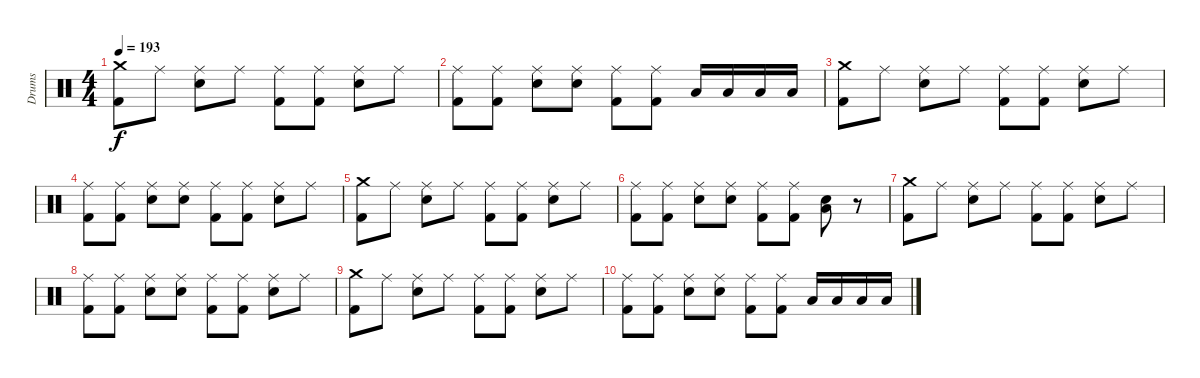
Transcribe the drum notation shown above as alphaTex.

\track ("Drums" "Drums") {instrument percussion}
\staff {score}
\articulation defaults
\ts (4 4)
\tempo 193
\clef neutral
\ks c
("Crash medium (hit)" "Kick (hit) 2").8{dy f} "Ride (middle)".8 ("Ride (middle)" "Snare (hit) 2").8 "Ride (middle)".8 ("Ride (middle)" "Kick (hit) 2").8 ("Ride (middle)" "Kick (hit) 2").8 ("Ride (middle)" "Snare (hit) 2").8 "Ride (middle)".8 |
("Ride (middle)" "Kick (hit) 2").8 ("Ride (middle)" "Kick (hit) 2").8 ("Ride (middle)" "Snare (hit) 2").8 ("Ride (middle)" "Snare (hit) 2").8 ("Ride (middle)" "Kick (hit) 2").8 ("Ride (middle)" "Kick (hit) 2").8 "Low Floor Tom (hit)".16 "Low Floor Tom (hit)".16 "Low Floor Tom (hit)".16 "Low Floor Tom (hit)".16 |
("Crash medium (hit)" "Kick (hit) 2").8 "Ride (middle)".8 ("Ride (middle)" "Snare (hit) 2").8 "Ride (middle)".8 ("Ride (middle)" "Kick (hit) 2").8 ("Ride (middle)" "Kick (hit) 2").8 ("Ride (middle)" "Snare (hit) 2").8 "Ride (middle)".8 |
("Ride (middle)" "Kick (hit) 2").8 ("Ride (middle)" "Kick (hit) 2").8 ("Ride (middle)" "Snare (hit) 2").8 ("Ride (middle)" "Snare (hit) 2").8 ("Ride (middle)" "Kick (hit) 2").8 ("Ride (middle)" "Kick (hit) 2").8 ("Ride (middle)" "Snare (hit) 2").8 "Ride (middle)".8 |
("Crash medium (hit)" "Kick (hit) 2").8 "Ride (middle)".8 ("Ride (middle)" "Snare (hit) 2").8 "Ride (middle)".8 ("Ride (middle)" "Kick (hit) 2").8 ("Ride (middle)" "Kick (hit) 2").8 ("Ride (middle)" "Snare (hit) 2").8 "Ride (middle)".8 |
("Ride (middle)" "Kick (hit) 2").8 ("Ride (middle)" "Kick (hit) 2").8 ("Ride (middle)" "Snare (hit) 2").8 ("Ride (middle)" "Snare (hit) 2").8 ("Ride (middle)" "Kick (hit) 2").8 ("Ride (middle)" "Kick (hit) 2").8 ("Snare (hit) 2" "Low Tom (hit)").8 r.8 |
("Crash medium (hit)" "Kick (hit) 2").8{volume 8} "Ride (middle)".8 ("Ride (middle)" "Snare (hit) 2").8 "Ride (middle)".8 ("Ride (middle)" "Kick (hit) 2").8 ("Ride (middle)" "Kick (hit) 2").8 ("Ride (middle)" "Snare (hit) 2").8 "Ride (middle)".8 |
("Ride (middle)" "Kick (hit) 2").8 ("Ride (middle)" "Kick (hit) 2").8 ("Ride (middle)" "Snare (hit) 2").8 ("Ride (middle)" "Snare (hit) 2").8 ("Ride (middle)" "Kick (hit) 2").8 ("Ride (middle)" "Kick (hit) 2").8 ("Ride (middle)" "Snare (hit) 2").8 "Ride (middle)".8 |
("Crash medium (hit)" "Kick (hit) 2").8{volume 0} "Ride (middle)".8 ("Ride (middle)" "Snare (hit) 2").8 "Ride (middle)".8 ("Ride (middle)" "Kick (hit) 2").8 ("Ride (middle)" "Kick (hit) 2").8 ("Ride (middle)" "Snare (hit) 2").8 "Ride (middle)".8 |
("Ride (middle)" "Kick (hit) 2").8 ("Ride (middle)" "Kick (hit) 2").8 ("Ride (middle)" "Snare (hit) 2").8 ("Ride (middle)" "Snare (hit) 2").8 ("Ride (middle)" "Kick (hit) 2").8 ("Ride (middle)" "Kick (hit) 2").8 "Low Floor Tom (hit)".16 "Low Floor Tom (hit)".16 "Low Floor Tom (hit)".16 "Low Floor Tom (hit)".16
